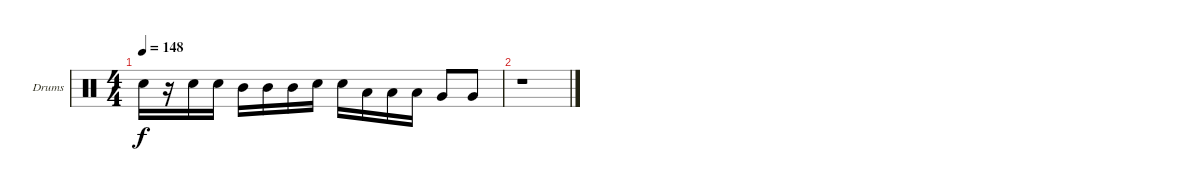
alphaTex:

\bracketExtendMode groupsimilarinstruments
\firstSystemTrackNameOrientation horizontal
\otherSystemsTrackNameOrientation horizontal
\track ("Drumkit" "Drums") {instrument percussion}
\staff {score}
\articulation defaults
\ts (4 4)
\tempo 148
\clef neutral
\ks c "Snare (hit) 2".16{dy f}
r.16 "Snare (hit) 2".16 "Snare (hit) 2".16 "Mid Tom (hit)".16 "Mid Tom (hit)".16 "Mid Tom (hit)".16 "Snare (hit) 2".16 "Snare (hit) 2".16 "Low Tom (hit)".16 "Low Tom (hit)".16 "Low Tom (hit)".16 "Very Low Tom (hit)".8 "Very Low Tom (hit)".8 |
r.1
